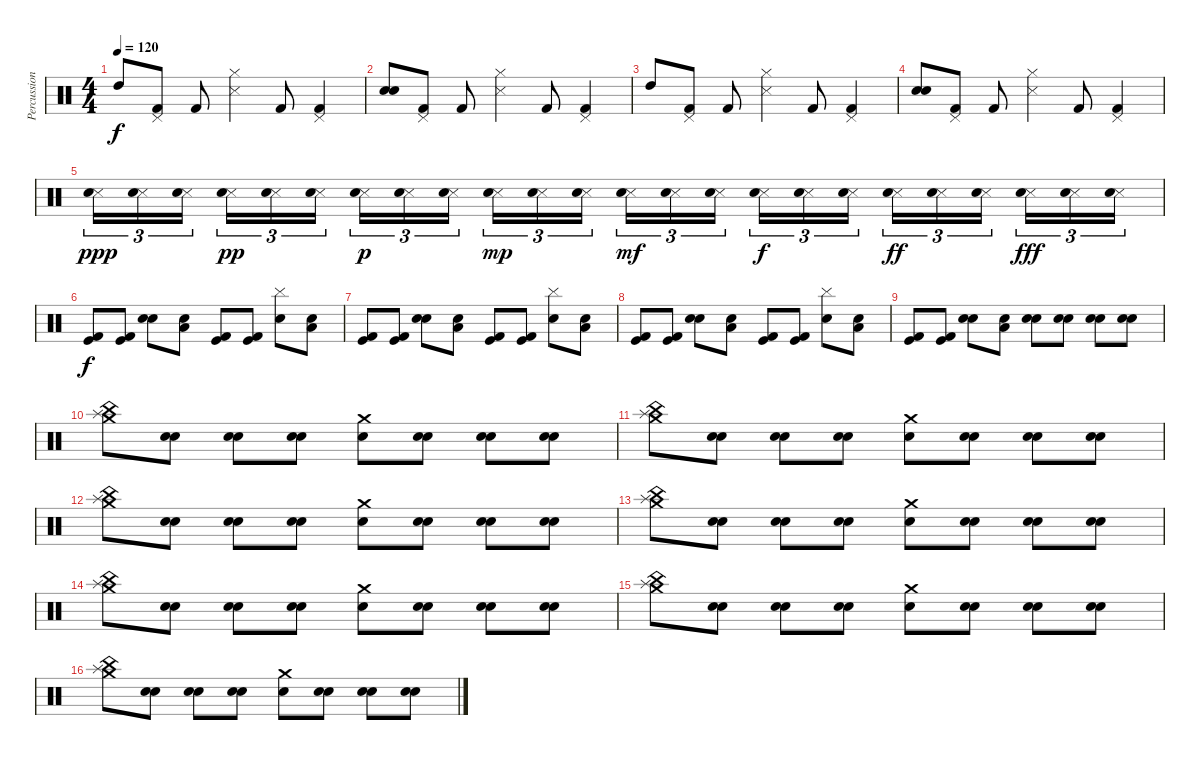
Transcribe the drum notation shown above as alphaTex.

\track ("Percussioni" "Percussion") {instrument percussion}
\staff {score}
\articulation defaults
\ts (4 4)
\tempo 120
\clef neutral
\ks c "High Tom (hit)".8{dy f}
("Kick (hit) 2" "Pedal Hi-Hat (hit)").8 "Kick (hit) 2".8 ("Snare (side stick) 3" "Hi-Hat (closed)").4 "Kick (hit) 2".8 ("Kick (hit) 2" "Pedal Hi-Hat (hit)").4 |
("Electric Snare (hit)" "Snare (hit) 2").8 ("Kick (hit) 2" "Pedal Hi-Hat (hit)").8 "Kick (hit) 2".8 ("Snare (side stick) 3" "Hi-Hat (closed)").4 "Kick (hit) 2".8 ("Kick (hit) 2" "Pedal Hi-Hat (hit)").4 |
"High Tom (hit)".8 ("Kick (hit) 2" "Pedal Hi-Hat (hit)").8 "Kick (hit) 2".8 ("Snare (side stick) 3" "Hi-Hat (closed)").4 "Kick (hit) 2".8 ("Kick (hit) 2" "Pedal Hi-Hat (hit)").4 |
("Electric Snare (hit)" "Snare (hit) 2").8 ("Kick (hit) 2" "Pedal Hi-Hat (hit)").8 "Kick (hit) 2".8 ("Snare (side stick) 3" "Hi-Hat (closed)").4 "Kick (hit) 2".8 ("Kick (hit) 2" "Pedal Hi-Hat (hit)").4 |
("Snare (side stick) 3" "Electric Snare (hit)").16{tu (3 2) dy ppp} ("Snare (side stick) 3" "Electric Snare (hit)").16{tu (3 2)} ("Snare (side stick) 3" "Electric Snare (hit)").16{tu (3 2) beam splitsecondary} ("Snare (side stick) 3" "Electric Snare (hit)").16{tu (3 2) dy pp} ("Snare (side stick) 3" "Electric Snare (hit)").16{tu (3 2)} ("Snare (side stick) 3" "Electric Snare (hit)").16{tu (3 2)} ("Snare (side stick) 3" "Electric Snare (hit)").16{tu (3 2) dy p} ("Snare (side stick) 3" "Electric Snare (hit)").16{tu (3 2)} ("Snare (side stick) 3" "Electric Snare (hit)").16{tu (3 2) beam splitsecondary} ("Snare (side stick) 3" "Electric Snare (hit)").16{tu (3 2) dy mp} ("Snare (side stick) 3" "Electric Snare (hit)").16{tu (3 2)} ("Snare (side stick) 3" "Electric Snare (hit)").16{tu (3 2)} ("Snare (side stick) 3" "Electric Snare (hit)").16{tu (3 2) dy mf} ("Snare (side stick) 3" "Electric Snare (hit)").16{tu (3 2)} ("Snare (side stick) 3" "Electric Snare (hit)").16{tu (3 2) beam splitsecondary} ("Snare (side stick) 3" "Electric Snare (hit)").16{tu (3 2) dy f} ("Snare (side stick) 3" "Electric Snare (hit)").16{tu (3 2)} ("Snare (side stick) 3" "Electric Snare (hit)").16{tu (3 2)} ("Snare (side stick) 3" "Electric Snare (hit)").16{tu (3 2) dy ff} ("Snare (side stick) 3" "Electric Snare (hit)").16{tu (3 2)} ("Snare (side stick) 3" "Electric Snare (hit)").16{tu (3 2) beam splitsecondary} ("Snare (side stick) 3" "Electric Snare (hit)").16{tu (3 2) dy fff} ("Snare (side stick) 3" "Electric Snare (hit)").16{tu (3 2)} ("Snare (side stick) 3" "Electric Snare (hit)").16{tu (3 2)} |
("Kick (hit) 2" "Kick (hit)").8{dy f} ("Kick (hit) 2" "Kick (hit)").8 ("Snare (hit) 2" "Electric Snare (hit)").8 ("Low Floor Tom (hit)" "Electric Snare (hit)").8 ("Kick (hit) 2" "Kick (hit)").8 ("Kick (hit) 2" "Kick (hit)").8 ("Snare (hit) 2" "Cymbal (hit)").8 ("Low Floor Tom (hit)" "Electric Snare (hit)").8 |
("Kick (hit) 2" "Kick (hit)").8 ("Kick (hit) 2" "Kick (hit)").8 ("Snare (hit) 2" "Electric Snare (hit)").8 ("Low Floor Tom (hit)" "Electric Snare (hit)").8 ("Kick (hit) 2" "Kick (hit)").8 ("Kick (hit) 2" "Kick (hit)").8 ("Snare (hit) 2" "Cymbal (hit)").8 ("Low Floor Tom (hit)" "Electric Snare (hit)").8 |
("Kick (hit) 2" "Kick (hit)").8 ("Kick (hit) 2" "Kick (hit)").8 ("Snare (hit) 2" "Electric Snare (hit)").8 ("Low Floor Tom (hit)" "Electric Snare (hit)").8 ("Kick (hit) 2" "Kick (hit)").8 ("Kick (hit) 2" "Kick (hit)").8 ("Snare (hit) 2" "Cymbal (hit)").8 ("Low Floor Tom (hit)" "Electric Snare (hit)").8 |
("Kick (hit) 2" "Kick (hit)").8 ("Kick (hit) 2" "Kick (hit)").8 ("Snare (hit) 2" "Electric Snare (hit)").8 ("Low Floor Tom (hit)" "Electric Snare (hit)").8 ("Electric Snare (hit)" "Snare (hit) 2").8 ("Electric Snare (hit)" "Snare (hit) 2").8 ("Electric Snare (hit)" "Snare (hit) 2").8 ("Electric Snare (hit)" "Snare (hit) 2").8 |
("Crash medium (hit)" "China (hit)" "Splash (hit)").8 ("Electric Snare (hit)" "Snare (hit) 2").8 ("Electric Snare (hit)" "Snare (hit) 2").8 ("Electric Snare (hit)" "Snare (hit) 2").8 ("Crash medium (hit)" "Snare (hit) 2").8 ("Electric Snare (hit)" "Snare (hit) 2").8 ("Electric Snare (hit)" "Snare (hit) 2").8 ("Electric Snare (hit)" "Snare (hit) 2").8 |
("Crash medium (hit)" "China (hit)" "Splash (hit)").8 ("Electric Snare (hit)" "Snare (hit) 2").8 ("Electric Snare (hit)" "Snare (hit) 2").8 ("Electric Snare (hit)" "Snare (hit) 2").8 ("Crash medium (hit)" "Snare (hit) 2").8 ("Electric Snare (hit)" "Snare (hit) 2").8 ("Electric Snare (hit)" "Snare (hit) 2").8 ("Electric Snare (hit)" "Snare (hit) 2").8 |
("Crash medium (hit)" "China (hit)" "Splash (hit)").8 ("Electric Snare (hit)" "Snare (hit) 2").8 ("Electric Snare (hit)" "Snare (hit) 2").8 ("Electric Snare (hit)" "Snare (hit) 2").8 ("Crash medium (hit)" "Snare (hit) 2").8 ("Electric Snare (hit)" "Snare (hit) 2").8 ("Electric Snare (hit)" "Snare (hit) 2").8 ("Electric Snare (hit)" "Snare (hit) 2").8 |
("Crash medium (hit)" "China (hit)" "Splash (hit)").8 ("Electric Snare (hit)" "Snare (hit) 2").8 ("Electric Snare (hit)" "Snare (hit) 2").8 ("Electric Snare (hit)" "Snare (hit) 2").8 ("Crash medium (hit)" "Snare (hit) 2").8 ("Electric Snare (hit)" "Snare (hit) 2").8 ("Electric Snare (hit)" "Snare (hit) 2").8 ("Electric Snare (hit)" "Snare (hit) 2").8 |
("Crash medium (hit)" "China (hit)" "Splash (hit)").8 ("Electric Snare (hit)" "Snare (hit) 2").8 ("Electric Snare (hit)" "Snare (hit) 2").8 ("Electric Snare (hit)" "Snare (hit) 2").8 ("Crash medium (hit)" "Snare (hit) 2").8 ("Electric Snare (hit)" "Snare (hit) 2").8 ("Electric Snare (hit)" "Snare (hit) 2").8 ("Electric Snare (hit)" "Snare (hit) 2").8 |
("Crash medium (hit)" "China (hit)" "Splash (hit)").8 ("Electric Snare (hit)" "Snare (hit) 2").8 ("Electric Snare (hit)" "Snare (hit) 2").8 ("Electric Snare (hit)" "Snare (hit) 2").8 ("Crash medium (hit)" "Snare (hit) 2").8 ("Electric Snare (hit)" "Snare (hit) 2").8 ("Electric Snare (hit)" "Snare (hit) 2").8 ("Electric Snare (hit)" "Snare (hit) 2").8 |
("Crash medium (hit)" "China (hit)" "Splash (hit)").8 ("Electric Snare (hit)" "Snare (hit) 2").8 ("Electric Snare (hit)" "Snare (hit) 2").8 ("Electric Snare (hit)" "Snare (hit) 2").8 ("Crash medium (hit)" "Snare (hit) 2").8 ("Electric Snare (hit)" "Snare (hit) 2").8 ("Electric Snare (hit)" "Snare (hit) 2").8 ("Electric Snare (hit)" "Snare (hit) 2").8
